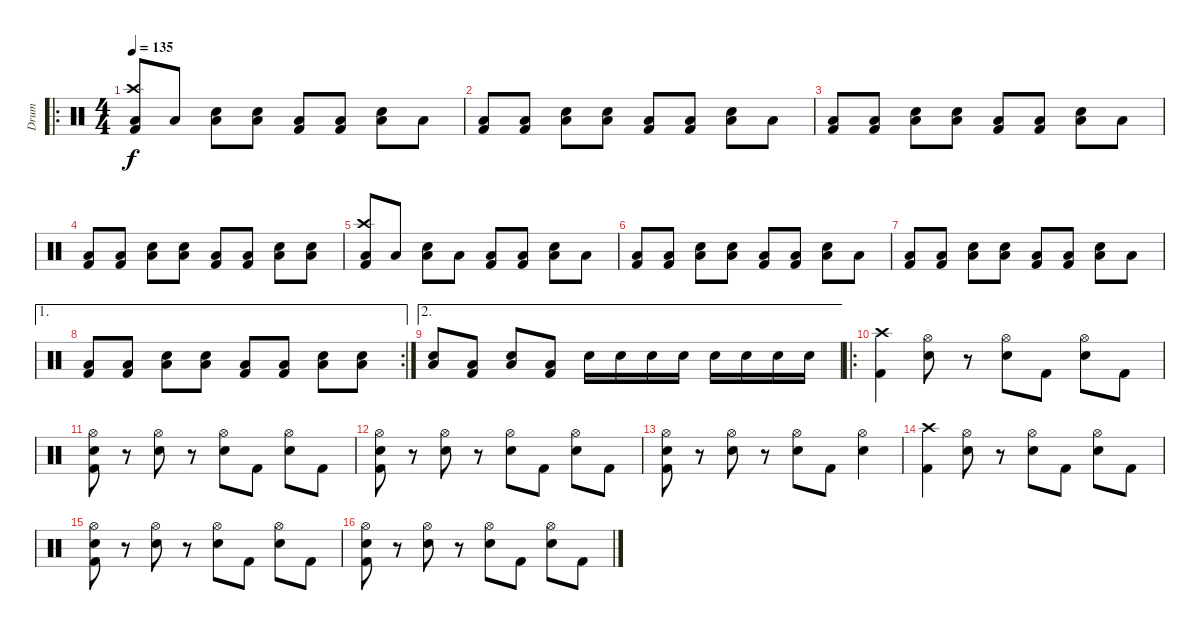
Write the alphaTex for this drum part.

\track ("Drum" "Drum") {instrument percussion}
\staff {score}
\articulation defaults
\ro
\ts (4 4)
\tempo 135
\clef neutral
\ks c
("Kick (hit) 2" "Crash high (hit)" "Low Tom (hit)").8{dy f} "Low Tom (hit)".8 ("Snare (hit) 2" "Low Tom (hit)").8 ("Snare (hit) 2" "Low Tom (hit)").8 ("Kick (hit) 2" "Low Tom (hit)").8 ("Kick (hit) 2" "Low Tom (hit)").8 ("Snare (hit) 2" "Low Tom (hit)").8 "Low Tom (hit)".8 |
("Kick (hit) 2" "Low Tom (hit)").8 ("Kick (hit) 2" "Low Tom (hit)").8 ("Snare (hit) 2" "Low Tom (hit)").8 ("Snare (hit) 2" "Low Tom (hit)").8 ("Kick (hit) 2" "Low Tom (hit)").8 ("Kick (hit) 2" "Low Tom (hit)").8 ("Snare (hit) 2" "Low Tom (hit)").8 "Low Tom (hit)".8 |
("Kick (hit) 2" "Low Tom (hit)").8 ("Kick (hit) 2" "Low Tom (hit)").8 ("Snare (hit) 2" "Low Tom (hit)").8 ("Snare (hit) 2" "Low Tom (hit)").8 ("Kick (hit) 2" "Low Tom (hit)").8 ("Kick (hit) 2" "Low Tom (hit)").8 ("Snare (hit) 2" "Low Tom (hit)").8 "Low Tom (hit)".8 |
("Kick (hit) 2" "Low Tom (hit)").8 ("Kick (hit) 2" "Low Tom (hit)").8 ("Snare (hit) 2" "Low Tom (hit)").8 ("Snare (hit) 2" "Low Tom (hit)").8 ("Kick (hit) 2" "Low Tom (hit)").8 ("Kick (hit) 2" "Low Tom (hit)").8 ("Snare (hit) 2" "Low Tom (hit)").8 ("Snare (hit) 2" "Low Tom (hit)").8 |
("Kick (hit) 2" "Crash high (hit)" "Low Tom (hit)").8 "Low Tom (hit)".8 ("Snare (hit) 2" "Low Tom (hit)").8 "Low Tom (hit)".8 ("Kick (hit) 2" "Low Tom (hit)").8 ("Kick (hit) 2" "Low Tom (hit)").8 ("Snare (hit) 2" "Low Tom (hit)").8 "Low Tom (hit)".8 |
("Kick (hit) 2" "Low Tom (hit)").8 ("Kick (hit) 2" "Low Tom (hit)").8 ("Snare (hit) 2" "Low Tom (hit)").8 ("Snare (hit) 2" "Low Tom (hit)").8 ("Kick (hit) 2" "Low Tom (hit)").8 ("Kick (hit) 2" "Low Tom (hit)").8 ("Snare (hit) 2" "Low Tom (hit)").8 "Low Tom (hit)".8 |
("Kick (hit) 2" "Low Tom (hit)").8 ("Kick (hit) 2" "Low Tom (hit)").8 ("Snare (hit) 2" "Low Tom (hit)").8 ("Snare (hit) 2" "Low Tom (hit)").8 ("Kick (hit) 2" "Low Tom (hit)").8 ("Kick (hit) 2" "Low Tom (hit)").8 ("Snare (hit) 2" "Low Tom (hit)").8 "Low Tom (hit)".8 |
\ae 1
\rc 2
("Kick (hit) 2" "Low Tom (hit)").8 ("Kick (hit) 2" "Low Tom (hit)").8 ("Snare (hit) 2" "Low Tom (hit)").8 ("Snare (hit) 2" "Low Tom (hit)").8 ("Kick (hit) 2" "Low Tom (hit)").8 ("Kick (hit) 2" "Low Tom (hit)").8 ("Snare (hit) 2" "Low Tom (hit)").8 ("Snare (hit) 2" "Low Tom (hit)").8 |
\ae 2
("Snare (hit) 2" "Low Tom (hit)").8 ("Kick (hit) 2" "Low Tom (hit)").8 ("Snare (hit) 2" "Low Tom (hit)").8 ("Kick (hit) 2" "Low Tom (hit)").8 "Snare (hit) 2".16 "Snare (hit) 2".16 "Snare (hit) 2".16 "Snare (hit) 2".16 "Snare (hit) 2".16 "Snare (hit) 2".16 "Snare (hit) 2".16 "Snare (hit) 2".16 |
\ro
("Kick (hit) 2" "Crash high (hit)").4 ("Hi-Hat (open)" "Snare (hit) 2").8 r.8 ("Hi-Hat (open)" "Snare (hit) 2").8 "Kick (hit) 2".8 ("Hi-Hat (open)" "Snare (hit) 2").8 "Kick (hit) 2".8 |
("Kick (hit) 2" "Hi-Hat (open)" "Snare (hit) 2").8 r.8 ("Hi-Hat (open)" "Snare (hit) 2").8 r.8 ("Hi-Hat (open)" "Snare (hit) 2").8 "Kick (hit) 2".8 ("Hi-Hat (open)" "Snare (hit) 2").8 "Kick (hit) 2".8 |
("Kick (hit) 2" "Hi-Hat (open)" "Snare (hit) 2").8 r.8 ("Hi-Hat (open)" "Snare (hit) 2").8 r.8 ("Hi-Hat (open)" "Snare (hit) 2").8 "Kick (hit) 2".8 ("Hi-Hat (open)" "Snare (hit) 2").8 "Kick (hit) 2".8 |
("Kick (hit) 2" "Hi-Hat (open)" "Snare (hit) 2").8 r.8 ("Hi-Hat (open)" "Snare (hit) 2").8 r.8 ("Hi-Hat (open)" "Snare (hit) 2").8 "Kick (hit) 2".8 ("Hi-Hat (open)" "Snare (hit) 2").4 |
("Kick (hit) 2" "Crash high (hit)").4 ("Hi-Hat (open)" "Snare (hit) 2").8 r.8 ("Hi-Hat (open)" "Snare (hit) 2").8 "Kick (hit) 2".8 ("Hi-Hat (open)" "Snare (hit) 2").8 "Kick (hit) 2".8 |
("Kick (hit) 2" "Hi-Hat (open)" "Snare (hit) 2").8 r.8 ("Hi-Hat (open)" "Snare (hit) 2").8 r.8 ("Hi-Hat (open)" "Snare (hit) 2").8 "Kick (hit) 2".8 ("Hi-Hat (open)" "Snare (hit) 2").8 "Kick (hit) 2".8 |
("Kick (hit) 2" "Hi-Hat (open)" "Snare (hit) 2").8 r.8 ("Hi-Hat (open)" "Snare (hit) 2").8 r.8 ("Hi-Hat (open)" "Snare (hit) 2").8 "Kick (hit) 2".8 ("Hi-Hat (open)" "Snare (hit) 2").8 "Kick (hit) 2".8
